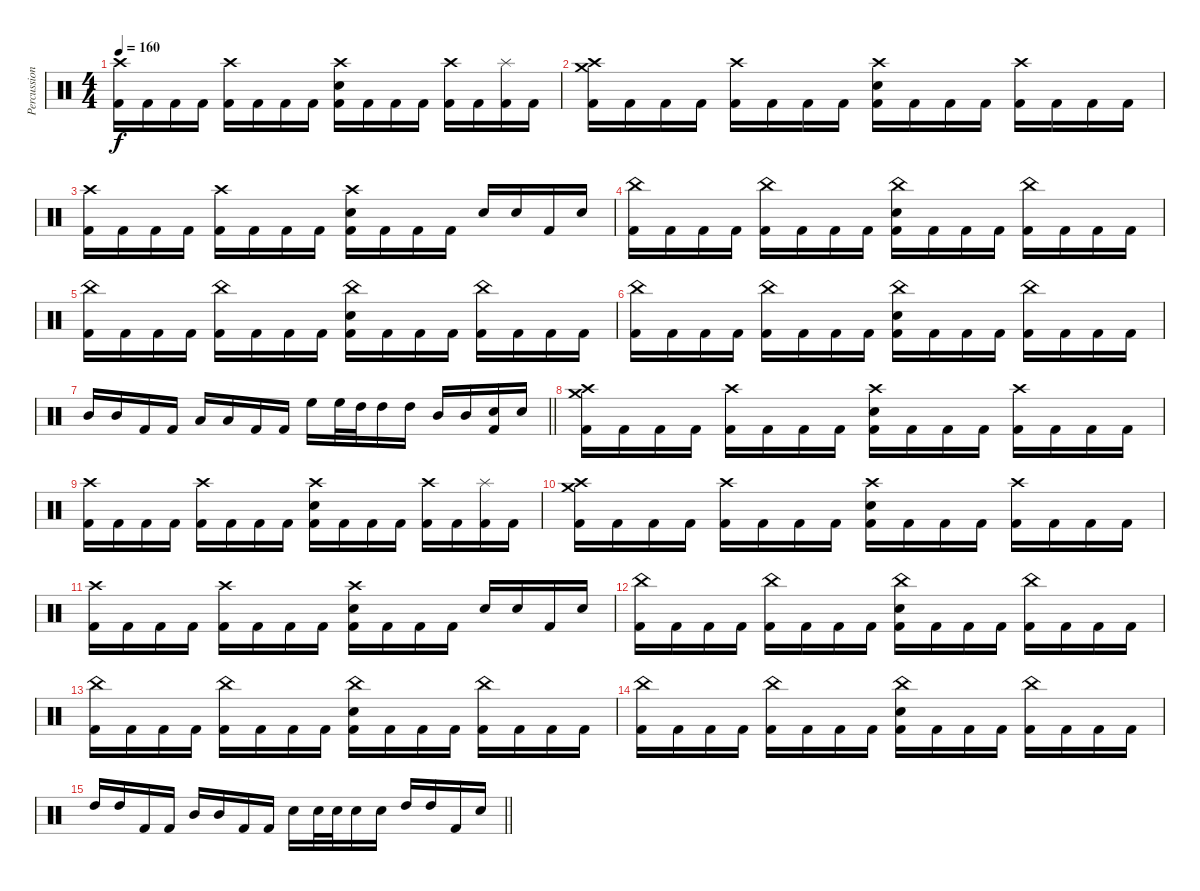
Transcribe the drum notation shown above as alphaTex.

\track ("Percussion" "Percussion") {instrument percussion}
\staff {score}
\articulation defaults
\ts (4 4)
\tempo 160
\clef neutral
\ks c
("Crash high (hit)" "Kick (hit) 2").16{dy f} "Kick (hit) 2".16 "Kick (hit) 2".16 "Kick (hit) 2".16 ("Crash high (hit)" "Kick (hit) 2").16 "Kick (hit) 2".16 "Kick (hit) 2".16 "Kick (hit) 2".16 ("Crash high (hit)" "Electric Snare (hit)" "Kick (hit) 2").16 "Kick (hit) 2".16 "Kick (hit) 2".16 "Kick (hit) 2".16 ("Crash high (hit)" "Kick (hit) 2").16 "Kick (hit) 2".16 ("Splash (hit)" "Kick (hit) 2").16 "Kick (hit) 2".16 |
("Crash medium (hit)" "Crash high (hit)" "Kick (hit) 2").16 "Kick (hit) 2".16 "Kick (hit) 2".16 "Kick (hit) 2".16 ("Crash high (hit)" "Kick (hit) 2").16 "Kick (hit) 2".16 "Kick (hit) 2".16 "Kick (hit) 2".16 ("Crash high (hit)" "Electric Snare (hit)" "Kick (hit) 2").16 "Kick (hit) 2".16 "Kick (hit) 2".16 "Kick (hit) 2".16 ("Crash high (hit)" "Kick (hit) 2").16 "Kick (hit) 2".16 "Kick (hit) 2".16 "Kick (hit) 2".16 |
("Crash high (hit)" "Kick (hit) 2").16 "Kick (hit) 2".16 "Kick (hit) 2".16 "Kick (hit) 2".16 ("Crash high (hit)" "Kick (hit) 2").16 "Kick (hit) 2".16 "Kick (hit) 2".16 "Kick (hit) 2".16 ("Crash high (hit)" "Electric Snare (hit)" "Kick (hit) 2").16 "Kick (hit) 2".16 "Kick (hit) 2".16 "Kick (hit) 2".16 "Electric Snare (hit)".16 "Electric Snare (hit)".16 "Kick (hit) 2".16 "Electric Snare (hit)".16 |
("China (hit)" "Kick (hit) 2").16 "Kick (hit) 2".16 "Kick (hit) 2".16 "Kick (hit) 2".16 ("China (hit)" "Kick (hit) 2").16 "Kick (hit) 2".16 "Kick (hit) 2".16 "Kick (hit) 2".16 ("China (hit)" "Electric Snare (hit)" "Kick (hit) 2").16 "Kick (hit) 2".16 "Kick (hit) 2".16 "Kick (hit) 2".16 ("China (hit)" "Kick (hit) 2").16 "Kick (hit) 2".16 "Kick (hit) 2".16 "Kick (hit) 2".16 |
("China (hit)" "Kick (hit) 2").16 "Kick (hit) 2".16 "Kick (hit) 2".16 "Kick (hit) 2".16 ("China (hit)" "Kick (hit) 2").16 "Kick (hit) 2".16 "Kick (hit) 2".16 "Kick (hit) 2".16 ("China (hit)" "Electric Snare (hit)" "Kick (hit) 2").16 "Kick (hit) 2".16 "Kick (hit) 2".16 "Kick (hit) 2".16 ("China (hit)" "Kick (hit) 2").16 "Kick (hit) 2".16 "Kick (hit) 2".16 "Kick (hit) 2".16 |
("China (hit)" "Kick (hit) 2").16 "Kick (hit) 2".16 "Kick (hit) 2".16 "Kick (hit) 2".16 ("China (hit)" "Kick (hit) 2").16 "Kick (hit) 2".16 "Kick (hit) 2".16 "Kick (hit) 2".16 ("China (hit)" "Electric Snare (hit)" "Kick (hit) 2").16 "Kick (hit) 2".16 "Kick (hit) 2".16 "Kick (hit) 2".16 ("China (hit)" "Kick (hit) 2").16 "Kick (hit) 2".16 "Kick (hit) 2".16 "Kick (hit) 2".16 |
\barLineRight lightlight "Mid Tom (hit)".16 "Mid Tom (hit)".16 "Kick (hit) 2".16 "Kick (hit) 2".16 "Low Tom (hit)".16 "Low Tom (hit)".16 "Kick (hit) 2".16 "Kick (hit) 2".16 "High Floor Tom (hit)".16 "High Floor Tom (hit)".32 "High Tom (hit)".32 "High Tom (hit)".16 "High Tom (hit)".16 "Mid Tom (hit)".16 "Mid Tom (hit)".16
("Electric Snare (hit)" "Kick (hit) 2").16 "Electric Snare (hit)".16 |
("Crash medium (hit)" "Crash high (hit)" "Kick (hit) 2").16{volume 8} "Kick (hit) 2".16 "Kick (hit) 2".16 "Kick (hit) 2".16 ("Crash high (hit)" "Kick (hit) 2").16 "Kick (hit) 2".16 "Kick (hit) 2".16 "Kick (hit) 2".16 ("Crash high (hit)" "Electric Snare (hit)" "Kick (hit) 2").16 "Kick (hit) 2".16 "Kick (hit) 2".16 "Kick (hit) 2".16 ("Crash high (hit)" "Kick (hit) 2").16 "Kick (hit) 2".16 "Kick (hit) 2".16 "Kick (hit) 2".16 |
("Crash high (hit)" "Kick (hit) 2").16 "Kick (hit) 2".16 "Kick (hit) 2".16 "Kick (hit) 2".16 ("Crash high (hit)" "Kick (hit) 2").16 "Kick (hit) 2".16 "Kick (hit) 2".16 "Kick (hit) 2".16 ("Crash high (hit)" "Electric Snare (hit)" "Kick (hit) 2").16 "Kick (hit) 2".16 "Kick (hit) 2".16 "Kick (hit) 2".16 ("Crash high (hit)" "Kick (hit) 2").16 "Kick (hit) 2".16 ("Splash (hit)" "Kick (hit) 2").16 "Kick (hit) 2".16 |
("Crash medium (hit)" "Crash high (hit)" "Kick (hit) 2").16 "Kick (hit) 2".16 "Kick (hit) 2".16 "Kick (hit) 2".16 ("Crash high (hit)" "Kick (hit) 2").16 "Kick (hit) 2".16 "Kick (hit) 2".16 "Kick (hit) 2".16 ("Crash high (hit)" "Electric Snare (hit)" "Kick (hit) 2").16 "Kick (hit) 2".16 "Kick (hit) 2".16 "Kick (hit) 2".16 ("Crash high (hit)" "Kick (hit) 2").16 "Kick (hit) 2".16 "Kick (hit) 2".16 "Kick (hit) 2".16 |
("Crash high (hit)" "Kick (hit) 2").16 "Kick (hit) 2".16 "Kick (hit) 2".16 "Kick (hit) 2".16 ("Crash high (hit)" "Kick (hit) 2").16 "Kick (hit) 2".16 "Kick (hit) 2".16 "Kick (hit) 2".16 ("Crash high (hit)" "Electric Snare (hit)" "Kick (hit) 2").16 "Kick (hit) 2".16 "Kick (hit) 2".16 "Kick (hit) 2".16 "Electric Snare (hit)".16 "Electric Snare (hit)".16 "Kick (hit) 2".16 "Electric Snare (hit)".16 |
("China (hit)" "Kick (hit) 2").16{volume 4} "Kick (hit) 2".16 "Kick (hit) 2".16 "Kick (hit) 2".16 ("China (hit)" "Kick (hit) 2").16 "Kick (hit) 2".16 "Kick (hit) 2".16 "Kick (hit) 2".16 ("China (hit)" "Electric Snare (hit)" "Kick (hit) 2").16 "Kick (hit) 2".16 "Kick (hit) 2".16 "Kick (hit) 2".16 ("China (hit)" "Kick (hit) 2").16 "Kick (hit) 2".16 "Kick (hit) 2".16 "Kick (hit) 2".16 |
("China (hit)" "Kick (hit) 2").16 "Kick (hit) 2".16 "Kick (hit) 2".16 "Kick (hit) 2".16 ("China (hit)" "Kick (hit) 2").16 "Kick (hit) 2".16 "Kick (hit) 2".16 "Kick (hit) 2".16 ("China (hit)" "Electric Snare (hit)" "Kick (hit) 2").16 "Kick (hit) 2".16 "Kick (hit) 2".16 "Kick (hit) 2".16 ("China (hit)" "Kick (hit) 2").16 "Kick (hit) 2".16 "Kick (hit) 2".16 "Kick (hit) 2".16 |
("China (hit)" "Kick (hit) 2").16 "Kick (hit) 2".16 "Kick (hit) 2".16 "Kick (hit) 2".16 ("China (hit)" "Kick (hit) 2").16 "Kick (hit) 2".16 "Kick (hit) 2".16 "Kick (hit) 2".16 ("China (hit)" "Electric Snare (hit)" "Kick (hit) 2").16 "Kick (hit) 2".16 "Kick (hit) 2".16 "Kick (hit) 2".16 ("China (hit)" "Kick (hit) 2").16 "Kick (hit) 2".16 "Kick (hit) 2".16 "Kick (hit) 2".16 |
\barLineRight lightlight "High Tom (hit)".16 "High Tom (hit)".16 "Kick (hit) 2".16 "Kick (hit) 2".16 "Mid Tom (hit)".16 "Mid Tom (hit)".16 "Kick (hit) 2".16 "Kick (hit) 2".16 "Electric Snare (hit)".16 "Electric Snare (hit)".32 "Electric Snare (hit)".32 "Electric Snare (hit)".16 "Electric Snare (hit)".16 "High Tom (hit)".16 "High Tom (hit)".16 "Kick (hit) 2".16 "Electric Snare (hit)".16
